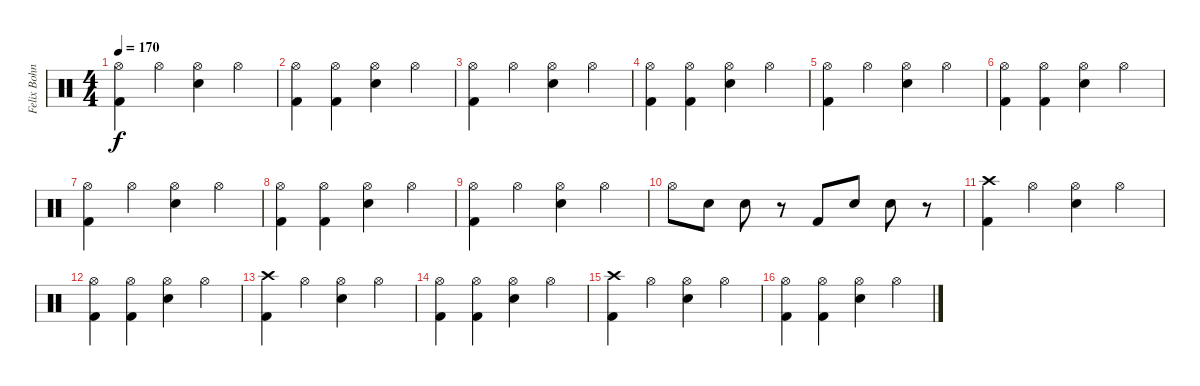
\track ("Felix Bohnke" "Felix Bohn") {instrument percussion}
\staff {score}
\articulation defaults
\ts (4 4)
\tempo 170
\clef neutral
\ks c
("Hi-Hat (open)" "Kick (hit) 2").4{dy f} "Hi-Hat (open)".4 ("Hi-Hat (open)" "Snare (hit) 2").4 "Hi-Hat (open)".4 |
("Hi-Hat (open)" "Kick (hit) 2").4 ("Hi-Hat (open)" "Kick (hit) 2").4 ("Hi-Hat (open)" "Snare (hit) 2").4 "Hi-Hat (open)".4 |
("Hi-Hat (open)" "Kick (hit) 2").4 "Hi-Hat (open)".4 ("Hi-Hat (open)" "Snare (hit) 2").4 "Hi-Hat (open)".4 |
("Hi-Hat (open)" "Kick (hit) 2").4 ("Hi-Hat (open)" "Kick (hit) 2").4 ("Hi-Hat (open)" "Snare (hit) 2").4 "Hi-Hat (open)".4 |
("Hi-Hat (open)" "Kick (hit) 2").4 "Hi-Hat (open)".4 ("Hi-Hat (open)" "Snare (hit) 2").4 "Hi-Hat (open)".4 |
("Hi-Hat (open)" "Kick (hit) 2").4 ("Hi-Hat (open)" "Kick (hit) 2").4 ("Hi-Hat (open)" "Snare (hit) 2").4 "Hi-Hat (open)".4 |
("Hi-Hat (open)" "Kick (hit) 2").4 "Hi-Hat (open)".4 ("Hi-Hat (open)" "Snare (hit) 2").4 "Hi-Hat (open)".4 |
("Hi-Hat (open)" "Kick (hit) 2").4 ("Hi-Hat (open)" "Kick (hit) 2").4 ("Hi-Hat (open)" "Snare (hit) 2").4 "Hi-Hat (open)".4 |
("Hi-Hat (open)" "Kick (hit) 2").4 "Hi-Hat (open)".4 ("Hi-Hat (open)" "Snare (hit) 2").4 "Hi-Hat (open)".4 |
"Hi-Hat (open)".8 "Snare (hit) 2".8 "Snare (hit) 2".8 r.8 "Kick (hit) 2".8 "Snare (hit) 2".8 "Snare (hit) 2".8 r.8 |
("Crash high (hit)" "Kick (hit) 2").4 "Hi-Hat (open)".4 ("Hi-Hat (open)" "Snare (hit) 2").4 "Hi-Hat (open)".4 |
("Hi-Hat (open)" "Kick (hit) 2").4 ("Hi-Hat (open)" "Kick (hit) 2").4 ("Hi-Hat (open)" "Snare (hit) 2").4 "Hi-Hat (open)".4 |
("Crash high (hit)" "Kick (hit) 2").4 "Hi-Hat (open)".4 ("Hi-Hat (open)" "Snare (hit) 2").4 "Hi-Hat (open)".4 |
("Hi-Hat (open)" "Kick (hit) 2").4 ("Hi-Hat (open)" "Kick (hit) 2").4 ("Hi-Hat (open)" "Snare (hit) 2").4 "Hi-Hat (open)".4 |
("Crash high (hit)" "Kick (hit) 2").4 "Hi-Hat (open)".4 ("Hi-Hat (open)" "Snare (hit) 2").4 "Hi-Hat (open)".4 |
("Hi-Hat (open)" "Kick (hit) 2").4 ("Hi-Hat (open)" "Kick (hit) 2").4 ("Hi-Hat (open)" "Snare (hit) 2").4 "Hi-Hat (open)".4
